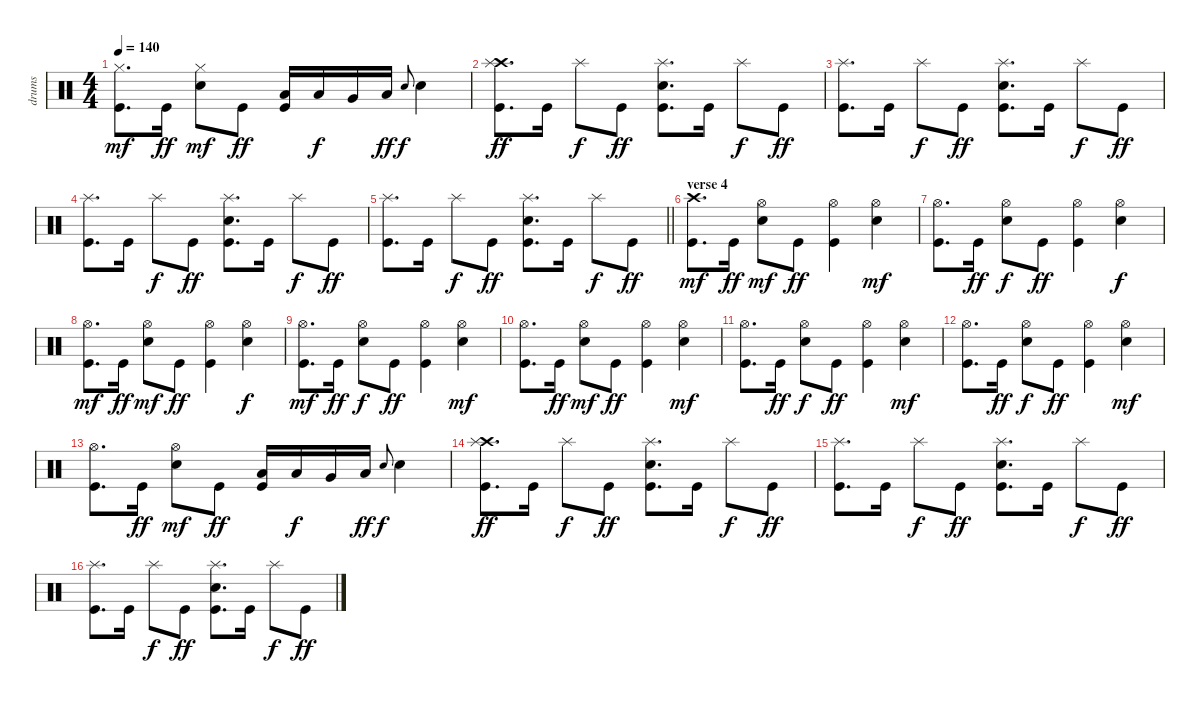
\track ("drums" "drums") {instrument percussion}
\staff {score}
\articulation defaults
\ts (4 4)
\tempo 140
\clef neutral
\ks c
("Hi-Hat (closed)" "Kick (hit)").8{d dy mf} "Kick (hit)".16{dy ff} ("Hi-Hat (closed)" "Electric Snare (hit)").8{dy mf} "Kick (hit)".8{dy ff} ("Low Tom (hit)" "Kick (hit)").16 "Low Tom (hit)".16{dy f} "Very Low Tom (hit)".16 "Low Floor Tom (hit)".16{dy ff} "Electric Snare (hit)".8{gr onbeat dy f} "Electric Snare (hit)".4 |
("Crash high (hit)" "Splash (hit)" "Kick (hit)").8{d dy ff} "Kick (hit)".16 "Splash (hit)".8{dy f} "Kick (hit)".8{dy ff} ("Splash (hit)" "Electric Snare (hit)" "Kick (hit)").8{d} "Kick (hit)".16 "Splash (hit)".8{dy f} "Kick (hit)".8{dy ff} |
("Splash (hit)" "Kick (hit)").8{d} "Kick (hit)".16 "Splash (hit)".8{dy f} "Kick (hit)".8{dy ff} ("Splash (hit)" "Electric Snare (hit)" "Kick (hit)").8{d} "Kick (hit)".16 "Splash (hit)".8{dy f} "Kick (hit)".8{dy ff} |
("Splash (hit)" "Kick (hit)").8{d} "Kick (hit)".16 "Splash (hit)".8{dy f} "Kick (hit)".8{dy ff} ("Splash (hit)" "Electric Snare (hit)" "Kick (hit)").8{d} "Kick (hit)".16 "Splash (hit)".8{dy f} "Kick (hit)".8{dy ff} |
\barLineRight lightlight
("Splash (hit)" "Kick (hit)").8{d} "Kick (hit)".16 "Splash (hit)".8{dy f} "Kick (hit)".8{dy ff} ("Splash (hit)" "Electric Snare (hit)" "Kick (hit)").8{d} "Kick (hit)".16 "Splash (hit)".8{dy f} "Kick (hit)".8{dy ff} |
\section ("" "verse 4")
("Crash high (hit)" "Kick (hit)").8{d dy mf} "Kick (hit)".16{dy ff} ("Hi-Hat (open)" "Electric Snare (hit)").8{dy mf} "Kick (hit)".8{dy ff} ("Hi-Hat (open)" "Kick (hit)").4 ("Hi-Hat (open)" "Electric Snare (hit)").4{dy mf} |
("Hi-Hat (open)" "Kick (hit)").8{d} "Kick (hit)".16{dy ff} ("Hi-Hat (open)" "Electric Snare (hit)").8{dy f} "Kick (hit)".8{dy ff} ("Hi-Hat (open)" "Kick (hit)").4 ("Hi-Hat (open)" "Electric Snare (hit)").4{dy f} |
("Hi-Hat (open)" "Kick (hit)").8{d dy mf} "Kick (hit)".16{dy ff} ("Hi-Hat (open)" "Electric Snare (hit)").8{dy mf} "Kick (hit)".8{dy ff} ("Hi-Hat (open)" "Kick (hit)").4 ("Hi-Hat (open)" "Electric Snare (hit)").4{dy f} |
("Hi-Hat (open)" "Kick (hit)").8{d dy mf} "Kick (hit)".16{dy ff} ("Hi-Hat (open)" "Electric Snare (hit)").8{dy f} "Kick (hit)".8{dy ff} ("Hi-Hat (open)" "Kick (hit)").4 ("Hi-Hat (open)" "Electric Snare (hit)").4{dy mf} |
("Hi-Hat (open)" "Kick (hit)").8{d} "Kick (hit)".16{dy ff} ("Hi-Hat (open)" "Electric Snare (hit)").8{dy mf} "Kick (hit)".8{dy ff} ("Hi-Hat (open)" "Kick (hit)").4 ("Hi-Hat (open)" "Electric Snare (hit)").4{dy mf} |
("Hi-Hat (open)" "Kick (hit)").8{d} "Kick (hit)".16{dy ff} ("Hi-Hat (open)" "Electric Snare (hit)").8{dy f} "Kick (hit)".8{dy ff} ("Hi-Hat (open)" "Kick (hit)").4 ("Hi-Hat (open)" "Electric Snare (hit)").4{dy mf} |
("Hi-Hat (open)" "Kick (hit)").8{d} "Kick (hit)".16{dy ff} ("Hi-Hat (open)" "Electric Snare (hit)").8{dy f} "Kick (hit)".8{dy ff} ("Hi-Hat (open)" "Kick (hit)").4 ("Hi-Hat (open)" "Electric Snare (hit)").4{dy mf} |
("Hi-Hat (open)" "Kick (hit)").8{d} "Kick (hit)".16{dy ff} ("Hi-Hat (open)" "Electric Snare (hit)").8{dy mf} "Kick (hit)".8{dy ff} ("Low Tom (hit)" "Kick (hit)").16 "Low Tom (hit)".16{dy f} "Very Low Tom (hit)".16 "Low Floor Tom (hit)".16{dy ff} "Electric Snare (hit)".8{gr onbeat dy f} "Electric Snare (hit)".4 |
("Crash high (hit)" "Splash (hit)" "Kick (hit)").8{d dy ff} "Kick (hit)".16 "Splash (hit)".8{dy f} "Kick (hit)".8{dy ff} ("Splash (hit)" "Electric Snare (hit)" "Kick (hit)").8{d} "Kick (hit)".16 "Splash (hit)".8{dy f} "Kick (hit)".8{dy ff} |
("Splash (hit)" "Kick (hit)").8{d} "Kick (hit)".16 "Splash (hit)".8{dy f} "Kick (hit)".8{dy ff} ("Splash (hit)" "Electric Snare (hit)" "Kick (hit)").8{d} "Kick (hit)".16 "Splash (hit)".8{dy f} "Kick (hit)".8{dy ff} |
("Splash (hit)" "Kick (hit)").8{d} "Kick (hit)".16 "Splash (hit)".8{dy f} "Kick (hit)".8{dy ff} ("Splash (hit)" "Electric Snare (hit)" "Kick (hit)").8{d} "Kick (hit)".16 "Splash (hit)".8{dy f} "Kick (hit)".8{dy ff}
